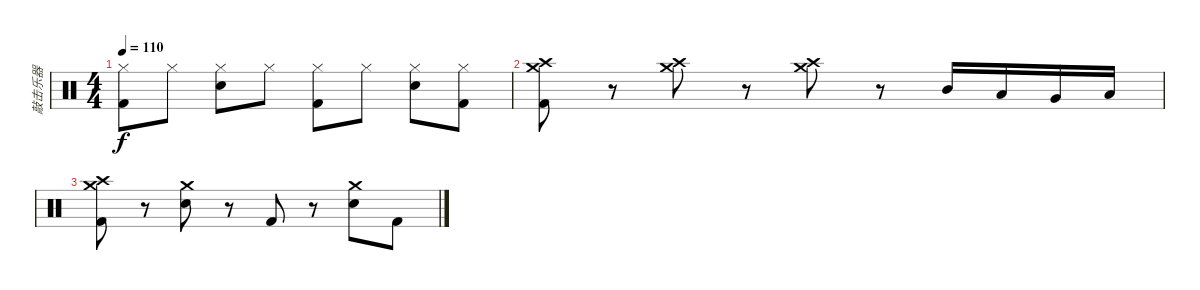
\track ("敲击乐器" "敲击乐器") {instrument percussion}
\staff {score}
\articulation defaults
\ts (4 4)
\tempo 110
\clef neutral
\ks c
("Hi-Hat (closed)" "Kick (hit) 2").8{dy f} "Hi-Hat (closed)".8 ("Hi-Hat (closed)" "Electric Snare (hit)").8 "Hi-Hat (closed)".8 ("Hi-Hat (closed)" "Kick (hit) 2").8 "Hi-Hat (closed)".8 ("Hi-Hat (closed)" "Electric Snare (hit)").8 ("Hi-Hat (closed)" "Kick (hit) 2").8 |
("Crash high (hit)" "Crash medium (hit)" "Kick (hit) 2").8 r.8 ("Crash high (hit)" "Crash medium (hit)").8 r.8 ("Crash high (hit)" "Crash medium (hit)").8 r.8 "Mid Tom (hit)".16 "Low Tom (hit)".16 "Very Low Tom (hit)".16 "Low Floor Tom (hit)".16 |
("Crash high (hit)" "Crash medium (hit)" "Kick (hit) 2").8 r.8 ("Crash medium (hit)" "Electric Snare (hit)").8 r.8 "Kick (hit) 2".8 r.8 ("Crash medium (hit)" "Electric Snare (hit)").8 "Kick (hit) 2".8
